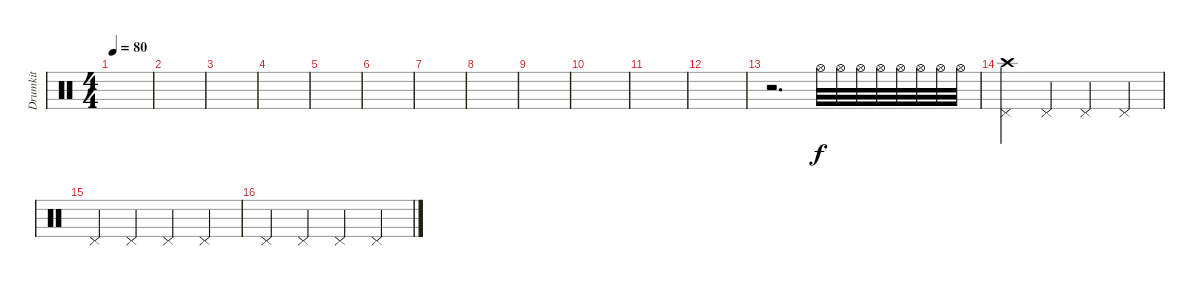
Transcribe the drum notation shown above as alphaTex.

\track ("Drumkit" "Drumkit") {instrument percussion}
\staff {score}
\articulation defaults
\ts (4 4)
\tempo 80
\clef neutral
\ks c
|
|
|
|
|
|
|
|
|
|
|
|
r.2{d} "Hi-Hat (open)".32 "Hi-Hat (open)".32 "Hi-Hat (open)".32 "Hi-Hat (open)".32 "Hi-Hat (open)".32 "Hi-Hat (open)".32 "Hi-Hat (open)".32 "Hi-Hat (open)".32 |
("Pedal Hi-Hat (hit)" "Crash high (hit)").4 "Pedal Hi-Hat (hit)".4 "Pedal Hi-Hat (hit)".4 "Pedal Hi-Hat (hit)".4 |
"Pedal Hi-Hat (hit)".4 "Pedal Hi-Hat (hit)".4 "Pedal Hi-Hat (hit)".4 "Pedal Hi-Hat (hit)".4 |
"Pedal Hi-Hat (hit)".4 "Pedal Hi-Hat (hit)".4 "Pedal Hi-Hat (hit)".4 "Pedal Hi-Hat (hit)".4
